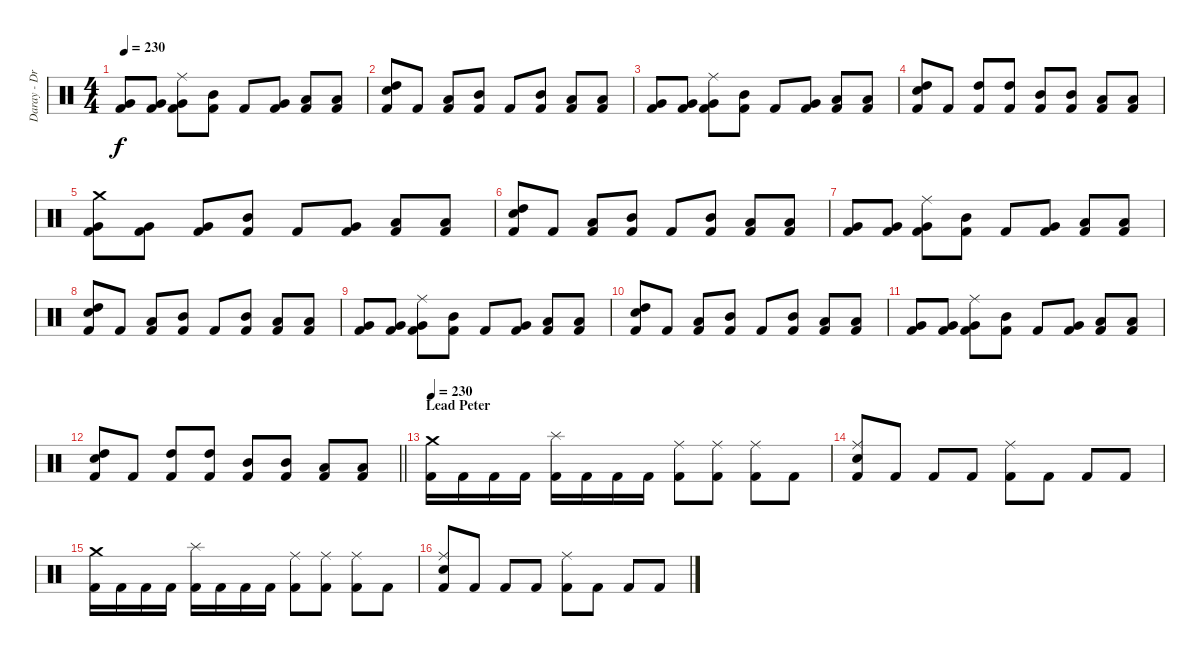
\track ("Daray - Drums" "Daray - Dr") {instrument percussion}
\staff {score}
\articulation defaults
\ts (4 4)
\tempo 230
\clef neutral
\ks c
("Very Low Tom (hit)" "Kick (hit) 2").8{dy f} ("Very Low Tom (hit)" "Kick (hit) 2").8 ("Ride (middle)" "Very Low Tom (hit)" "Kick (hit) 2").8 ("Mid Tom (hit)" "Kick (hit) 2").8 "Kick (hit) 2".8 ("Very Low Tom (hit)" "Kick (hit) 2").8 ("Low Tom (hit)" "Kick (hit) 2").8 ("Low Tom (hit)" "Kick (hit) 2").8 |
("Electric Snare (hit)" "High Tom (hit)" "Kick (hit) 2").8 "Kick (hit) 2".8 ("Low Tom (hit)" "Kick (hit) 2").8 ("Mid Tom (hit)" "Kick (hit) 2").8 "Kick (hit) 2".8 ("Mid Tom (hit)" "Kick (hit) 2").8 ("Low Tom (hit)" "Kick (hit) 2").8 ("Low Tom (hit)" "Kick (hit) 2").8 |
("Very Low Tom (hit)" "Kick (hit) 2").8 ("Very Low Tom (hit)" "Kick (hit) 2").8 ("Ride (middle)" "Very Low Tom (hit)" "Kick (hit) 2").8 ("Mid Tom (hit)" "Kick (hit) 2").8 "Kick (hit) 2".8 ("Very Low Tom (hit)" "Kick (hit) 2").8 ("Low Tom (hit)" "Kick (hit) 2").8 ("Low Tom (hit)" "Kick (hit) 2").8 |
("Electric Snare (hit)" "High Tom (hit)" "Kick (hit) 2").8 "Kick (hit) 2".8 ("High Tom (hit)" "Kick (hit) 2").8 ("High Tom (hit)" "Kick (hit) 2").8 ("Mid Tom (hit)" "Kick (hit) 2").8 ("Mid Tom (hit)" "Kick (hit) 2").8 ("Low Tom (hit)" "Kick (hit) 2").8 ("Low Tom (hit)" "Kick (hit) 2").8 |
("Crash medium (hit)" "Very Low Tom (hit)" "Kick (hit) 2").8 ("Very Low Tom (hit)" "Kick (hit) 2").8 ("Very Low Tom (hit)" "Kick (hit) 2").8 ("Mid Tom (hit)" "Kick (hit) 2").8 "Kick (hit) 2".8 ("Very Low Tom (hit)" "Kick (hit) 2").8 ("Low Tom (hit)" "Kick (hit) 2").8 ("Low Tom (hit)" "Kick (hit) 2").8 |
("Electric Snare (hit)" "High Tom (hit)" "Kick (hit) 2").8 "Kick (hit) 2".8 ("Low Tom (hit)" "Kick (hit) 2").8 ("Mid Tom (hit)" "Kick (hit) 2").8 "Kick (hit) 2".8 ("Mid Tom (hit)" "Kick (hit) 2").8 ("Low Tom (hit)" "Kick (hit) 2").8 ("Low Tom (hit)" "Kick (hit) 2").8 |
("Very Low Tom (hit)" "Kick (hit) 2").8 ("Very Low Tom (hit)" "Kick (hit) 2").8 ("Ride (middle)" "Very Low Tom (hit)" "Kick (hit) 2").8 ("Mid Tom (hit)" "Kick (hit) 2").8 "Kick (hit) 2".8 ("Very Low Tom (hit)" "Kick (hit) 2").8 ("Low Tom (hit)" "Kick (hit) 2").8 ("Low Tom (hit)" "Kick (hit) 2").8 |
("Electric Snare (hit)" "High Tom (hit)" "Kick (hit) 2").8 "Kick (hit) 2".8 ("Low Tom (hit)" "Kick (hit) 2").8 ("Mid Tom (hit)" "Kick (hit) 2").8 "Kick (hit) 2".8 ("Mid Tom (hit)" "Kick (hit) 2").8 ("Low Tom (hit)" "Kick (hit) 2").8 ("Low Tom (hit)" "Kick (hit) 2").8 |
("Very Low Tom (hit)" "Kick (hit) 2").8 ("Very Low Tom (hit)" "Kick (hit) 2").8 ("Ride (middle)" "Very Low Tom (hit)" "Kick (hit) 2").8 ("Mid Tom (hit)" "Kick (hit) 2").8 "Kick (hit) 2".8 ("Very Low Tom (hit)" "Kick (hit) 2").8 ("Low Tom (hit)" "Kick (hit) 2").8 ("Low Tom (hit)" "Kick (hit) 2").8 |
("Electric Snare (hit)" "High Tom (hit)" "Kick (hit) 2").8 "Kick (hit) 2".8 ("Low Tom (hit)" "Kick (hit) 2").8 ("Mid Tom (hit)" "Kick (hit) 2").8 "Kick (hit) 2".8 ("Mid Tom (hit)" "Kick (hit) 2").8 ("Low Tom (hit)" "Kick (hit) 2").8 ("Low Tom (hit)" "Kick (hit) 2").8 |
("Very Low Tom (hit)" "Kick (hit) 2").8 ("Very Low Tom (hit)" "Kick (hit) 2").8 ("Ride (middle)" "Very Low Tom (hit)" "Kick (hit) 2").8 ("Mid Tom (hit)" "Kick (hit) 2").8 "Kick (hit) 2".8 ("Very Low Tom (hit)" "Kick (hit) 2").8 ("Low Tom (hit)" "Kick (hit) 2").8 ("Low Tom (hit)" "Kick (hit) 2").8 |
\barLineRight lightlight
("Electric Snare (hit)" "High Tom (hit)" "Kick (hit) 2").8 "Kick (hit) 2".8 ("High Tom (hit)" "Kick (hit) 2").8 ("High Tom (hit)" "Kick (hit) 2").8 ("Mid Tom (hit)" "Kick (hit) 2").8 ("Mid Tom (hit)" "Kick (hit) 2").8 ("Low Tom (hit)" "Kick (hit) 2").8 ("Low Tom (hit)" "Kick (hit) 2").8 |
\section ("" "Lead Peter")
\tempo 230
("Crash medium (hit)" "Kick (hit) 2").16 "Kick (hit) 2".16 "Kick (hit) 2".16 "Kick (hit) 2".16 ("Splash (hit)" "Kick (hit) 2").16 "Kick (hit) 2".16 "Kick (hit) 2".16 "Kick (hit) 2".16 ("Ride (middle)" "Kick (hit) 2").8 ("Ride (middle)" "Kick (hit) 2").8 ("Ride (middle)" "Kick (hit) 2").8 "Kick (hit) 2".8 |
("Ride (middle)" "Electric Snare (hit)" "Kick (hit) 2").8 "Kick (hit) 2".8 "Kick (hit) 2".8 "Kick (hit) 2".8 ("Ride (middle)" "Kick (hit) 2").8 "Kick (hit) 2".8 "Kick (hit) 2".8 "Kick (hit) 2".8 |
("Crash medium (hit)" "Kick (hit) 2").16 "Kick (hit) 2".16 "Kick (hit) 2".16 "Kick (hit) 2".16 ("Splash (hit)" "Kick (hit) 2").16 "Kick (hit) 2".16 "Kick (hit) 2".16 "Kick (hit) 2".16 ("Ride (middle)" "Kick (hit) 2").8 ("Ride (middle)" "Kick (hit) 2").8 ("Ride (middle)" "Kick (hit) 2").8 "Kick (hit) 2".8 |
("Ride (middle)" "Electric Snare (hit)" "Kick (hit) 2").8 "Kick (hit) 2".8 "Kick (hit) 2".8 "Kick (hit) 2".8 ("Ride (middle)" "Kick (hit) 2").8 "Kick (hit) 2".8 "Kick (hit) 2".8 "Kick (hit) 2".8
